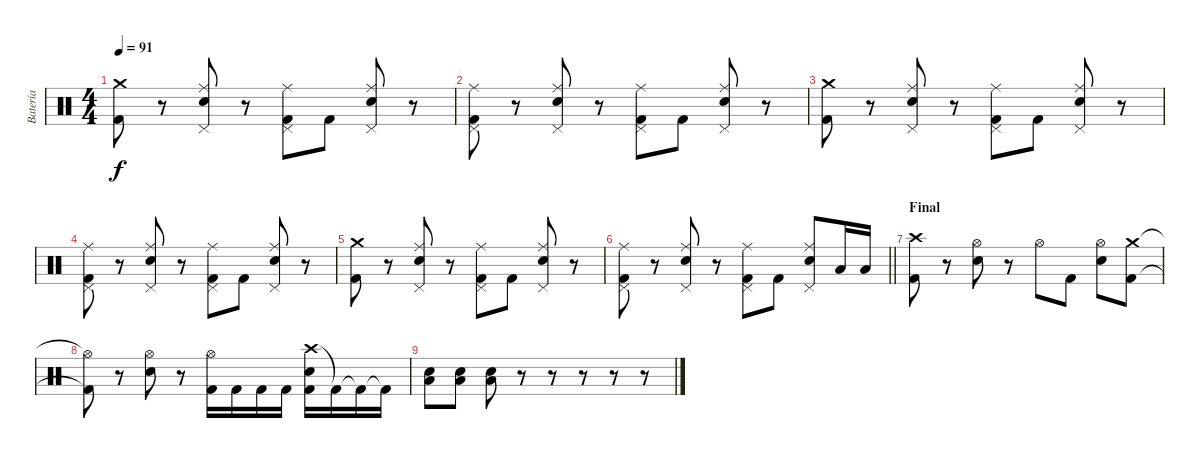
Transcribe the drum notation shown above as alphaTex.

\track ("Batería" "Batería") {instrument percussion}
\staff {score}
\articulation defaults
\ts (4 4)
\tempo 91
\clef neutral
\ks c
("Crash medium (hit)" "Kick (hit) 2").8{dy f} r.8 ("Pedal Hi-Hat (hit)" "Snare (hit) 2" "Ride (middle)").8 r.8 ("Pedal Hi-Hat (hit)" "Kick (hit) 2" "Ride (middle)").8 "Kick (hit) 2".8 ("Pedal Hi-Hat (hit)" "Snare (hit) 2" "Ride (middle)").8 r.8 |
("Pedal Hi-Hat (hit)" "Ride (middle)" "Kick (hit) 2").8 r.8 ("Pedal Hi-Hat (hit)" "Snare (hit) 2" "Ride (middle)").8 r.8 ("Pedal Hi-Hat (hit)" "Kick (hit) 2" "Ride (middle)").8 "Kick (hit) 2".8 ("Pedal Hi-Hat (hit)" "Snare (hit) 2" "Ride (middle)").8 r.8 |
("Crash medium (hit)" "Kick (hit) 2").8 r.8 ("Pedal Hi-Hat (hit)" "Snare (hit) 2" "Ride (middle)").8 r.8 ("Pedal Hi-Hat (hit)" "Kick (hit) 2" "Ride (middle)").8 "Kick (hit) 2".8 ("Pedal Hi-Hat (hit)" "Snare (hit) 2" "Ride (middle)").8 r.8 |
("Pedal Hi-Hat (hit)" "Ride (middle)" "Kick (hit) 2").8 r.8 ("Pedal Hi-Hat (hit)" "Snare (hit) 2" "Ride (middle)").8 r.8 ("Pedal Hi-Hat (hit)" "Kick (hit) 2" "Ride (middle)").8 "Kick (hit) 2".8 ("Pedal Hi-Hat (hit)" "Snare (hit) 2" "Ride (middle)").8 r.8 |
("Crash medium (hit)" "Kick (hit) 2").8 r.8 ("Pedal Hi-Hat (hit)" "Snare (hit) 2" "Ride (middle)").8 r.8 ("Pedal Hi-Hat (hit)" "Kick (hit) 2" "Ride (middle)").8 "Kick (hit) 2".8 ("Pedal Hi-Hat (hit)" "Snare (hit) 2" "Ride (middle)").8 r.8 |
\barLineRight lightlight
("Pedal Hi-Hat (hit)" "Ride (middle)" "Kick (hit) 2").8 r.8 ("Pedal Hi-Hat (hit)" "Snare (hit) 2" "Ride (middle)").8 r.8 ("Pedal Hi-Hat (hit)" "Kick (hit) 2" "Ride (middle)").8 "Kick (hit) 2".8 ("Pedal Hi-Hat (hit)" "Snare (hit) 2" "Ride (middle)").8 "Low Tom (hit)".16 "Low Tom (hit)".16 |
\section ("" "Final")
("Crash high (hit)" "Kick (hit) 2").8 r.8 ("Hi-Hat (open)" "Snare (hit) 2").8 r.8 "Hi-Hat (open)".8 "Kick (hit) 2".8 ("Hi-Hat (open)" "Snare (hit) 2").8 ("Crash medium (hit)" "Kick (hit) 2").8 |
("Hi-Hat (open)"{t} "Kick (hit) 2"{t}).8 r.8 ("Hi-Hat (open)" "Snare (hit) 2").8 r.8 ("Hi-Hat (open)" "Kick (hit) 2").16 "Kick (hit) 2".16 "Kick (hit) 2".16 "Kick (hit) 2".16 ("Crash high (hit)" "Kick (hit) 2" "Snare (hit) 2").16 "Kick (hit) 2"{t}.16 "Kick (hit) 2"{t}.16 "Kick (hit) 2"{t}.16 |
("Low Tom (hit)" "Snare (hit) 2").8 ("Low Tom (hit)" "Snare (hit) 2").8 ("Low Tom (hit)" "Snare (hit) 2").8 r.8 r.8 r.8 r.8 r.8
